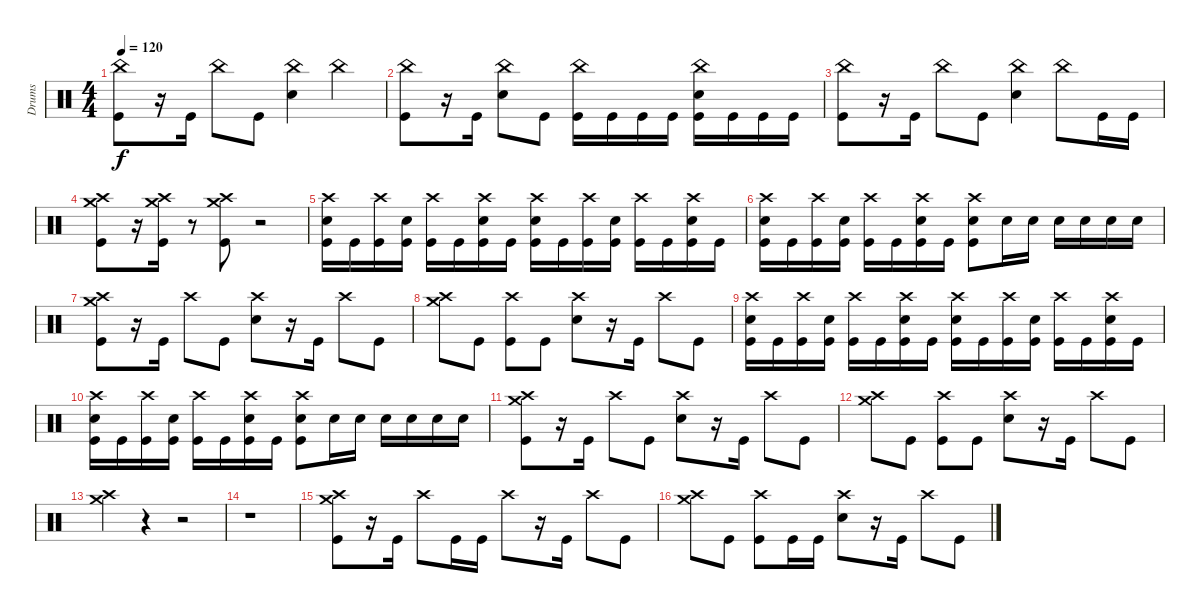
\track ("Drums" "Drums") {instrument percussion}
\staff {score}
\articulation defaults
\ts (4 4)
\tempo 120
\clef neutral
\ks c
("China (hit)" "Kick (hit)").8{dy f} r.16 "Kick (hit)".16 "China (hit)".8 "Kick (hit)".8 ("China (hit)" "Snare (hit) 2").4 "China (hit)".4 |
("China (hit)" "Kick (hit)").8 r.16 "Kick (hit)".16 ("China (hit)" "Snare (hit) 2").8 "Kick (hit)".8 ("China (hit)" "Kick (hit)").16 "Kick (hit)".16 "Kick (hit)".16 "Kick (hit)".16 ("China (hit)" "Snare (hit) 2" "Kick (hit)").16 "Kick (hit)".16 "Kick (hit)".16 "Kick (hit)".16 |
("China (hit)" "Kick (hit)").8 r.16 "Kick (hit)".16 "China (hit)".8 "Kick (hit)".8 ("China (hit)" "Snare (hit) 2").4 "China (hit)".8 "Kick (hit)".16 "Kick (hit)".16 |
("Crash high (hit)" "Crash medium (hit)" "Kick (hit)").8 r.16 ("Crash high (hit)" "Crash medium (hit)" "Kick (hit)").16 r.8 ("Crash high (hit)" "Crash medium (hit)" "Kick (hit)").8 r.2 |
("Crash high (hit)" "Snare (hit) 2" "Kick (hit)").16 "Kick (hit)".16 ("Crash high (hit)" "Kick (hit)").16 ("Snare (hit) 2" "Kick (hit)").16 ("Crash high (hit)" "Kick (hit)").16 "Kick (hit)".16 ("Crash high (hit)" "Snare (hit) 2" "Kick (hit)").16 "Kick (hit)".16 ("Crash high (hit)" "Snare (hit) 2" "Kick (hit)").16 "Kick (hit)".16 ("Crash high (hit)" "Kick (hit)").16 ("Snare (hit) 2" "Kick (hit)").16 ("Crash high (hit)" "Kick (hit)").16 "Kick (hit)".16 ("Crash high (hit)" "Snare (hit) 2" "Kick (hit)").16 "Kick (hit)".16 |
("Crash high (hit)" "Snare (hit) 2" "Kick (hit)").16 "Kick (hit)".16 ("Crash high (hit)" "Kick (hit)").16 ("Snare (hit) 2" "Kick (hit)").16 ("Crash high (hit)" "Kick (hit)").16 "Kick (hit)".16 ("Crash high (hit)" "Snare (hit) 2" "Kick (hit)").16 "Kick (hit)".16 ("Crash high (hit)" "Snare (hit) 2" "Kick (hit)").8 "Snare (hit) 2".16 "Snare (hit) 2".16 "Snare (hit) 2".16 "Snare (hit) 2".16 "Snare (hit) 2".16 "Snare (hit) 2".16 |
("Crash high (hit)" "Crash medium (hit)" "Kick (hit)").8 r.16 "Kick (hit)".16 "Crash high (hit)".8 "Kick (hit)".8 ("Crash high (hit)" "Snare (hit) 2").8 r.16 "Kick (hit)".16 "Crash high (hit)".8 "Kick (hit)".8 |
("Crash high (hit)" "Crash medium (hit)").8 "Kick (hit)".8 ("Crash high (hit)" "Kick (hit)").8 "Kick (hit)".8 ("Crash high (hit)" "Snare (hit) 2").8 r.16 "Kick (hit)".16 "Crash high (hit)".8 "Kick (hit)".8 |
("Crash high (hit)" "Snare (hit) 2" "Kick (hit)").16 "Kick (hit)".16 ("Crash high (hit)" "Kick (hit)").16 ("Snare (hit) 2" "Kick (hit)").16 ("Crash high (hit)" "Kick (hit)").16 "Kick (hit)".16 ("Crash high (hit)" "Snare (hit) 2" "Kick (hit)").16 "Kick (hit)".16 ("Crash high (hit)" "Snare (hit) 2" "Kick (hit)").16 "Kick (hit)".16 ("Crash high (hit)" "Kick (hit)").16 ("Snare (hit) 2" "Kick (hit)").16 ("Crash high (hit)" "Kick (hit)").16 "Kick (hit)".16 ("Crash high (hit)" "Snare (hit) 2" "Kick (hit)").16 "Kick (hit)".16 |
("Crash high (hit)" "Snare (hit) 2" "Kick (hit)").16 "Kick (hit)".16 ("Crash high (hit)" "Kick (hit)").16 ("Snare (hit) 2" "Kick (hit)").16 ("Crash high (hit)" "Kick (hit)").16 "Kick (hit)".16 ("Crash high (hit)" "Snare (hit) 2" "Kick (hit)").16 "Kick (hit)".16 ("Crash high (hit)" "Snare (hit) 2" "Kick (hit)").8 "Snare (hit) 2".16 "Snare (hit) 2".16 "Snare (hit) 2".16 "Snare (hit) 2".16 "Snare (hit) 2".16 "Snare (hit) 2".16 |
("Crash high (hit)" "Crash medium (hit)" "Kick (hit)").8 r.16 "Kick (hit)".16 "Crash high (hit)".8 "Kick (hit)".8 ("Crash high (hit)" "Snare (hit) 2").8 r.16 "Kick (hit)".16 "Crash high (hit)".8 "Kick (hit)".8 |
("Crash high (hit)" "Crash medium (hit)").8 "Kick (hit)".8 ("Crash high (hit)" "Kick (hit)").8 "Kick (hit)".8 ("Crash high (hit)" "Snare (hit) 2").8 r.16 "Kick (hit)".16 "Crash high (hit)".8 "Kick (hit)".8 |
("Crash high (hit)" "Crash medium (hit)").4 r.4 r.2 |
r.1 |
("Crash high (hit)" "Crash medium (hit)" "Kick (hit)").8 r.16 "Kick (hit)".16 "Crash high (hit)".8 "Kick (hit)".16 "Kick (hit)".16 "Crash high (hit)".8 r.16 "Kick (hit)".16 "Crash high (hit)".8 "Kick (hit)".8 |
("Crash high (hit)" "Crash medium (hit)").8 "Kick (hit)".8 ("Crash high (hit)" "Kick (hit)").8 "Kick (hit)".16 "Kick (hit)".16 ("Crash high (hit)" "Snare (hit) 2").8 r.16 "Kick (hit)".16 "Crash high (hit)".8 "Kick (hit)".8
